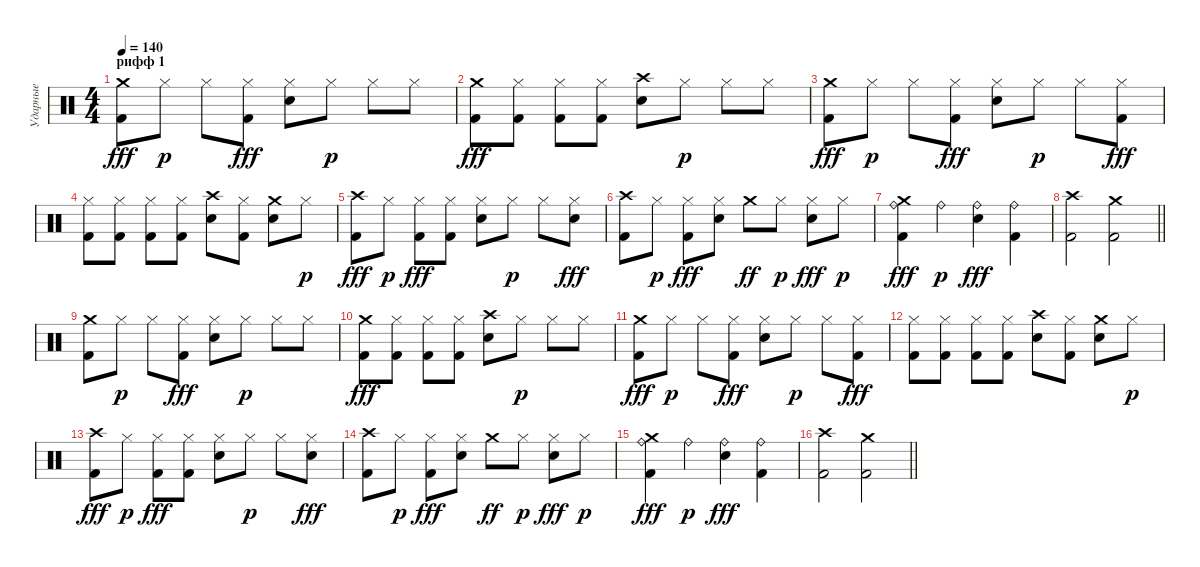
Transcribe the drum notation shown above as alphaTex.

\track ("Ударные" "Ударные") {instrument percussion}
\staff {score}
\articulation defaults
\ts (4 4)
\section ("" "рифф 1")
\tempo 140
\clef neutral
\ks c
("Crash medium (hit)" "Kick (hit) 2").8{dy fff} "Hi-Hat (closed)".8{dy p} "Hi-Hat (closed)".8 ("Hi-Hat (closed)" "Kick (hit) 2").8{dy fff} ("Hi-Hat (closed)" "Snare (hit) 2").8 "Hi-Hat (closed)".8{dy p} "Hi-Hat (closed)".8 "Hi-Hat (closed)".8 |
("Crash medium (hit)" "Kick (hit) 2").8{dy fff} ("Hi-Hat (closed)" "Kick (hit) 2").8 ("Hi-Hat (closed)" "Kick (hit) 2").8 ("Hi-Hat (closed)" "Kick (hit) 2").8 ("Crash high (hit)" "Snare (hit) 2").8 "Hi-Hat (closed)".8{dy p} "Hi-Hat (closed)".8 "Hi-Hat (closed)".8 |
("Crash medium (hit)" "Kick (hit) 2").8{dy fff} "Hi-Hat (closed)".8{dy p} "Hi-Hat (closed)".8 ("Hi-Hat (closed)" "Kick (hit) 2").8{dy fff} ("Hi-Hat (closed)" "Snare (hit) 2").8 "Hi-Hat (closed)".8{dy p} "Hi-Hat (closed)".8 ("Hi-Hat (closed)" "Kick (hit) 2").8{dy fff} |
("Hi-Hat (closed)" "Kick (hit) 2").8 ("Hi-Hat (closed)" "Kick (hit) 2").8 ("Hi-Hat (closed)" "Kick (hit) 2").8 ("Hi-Hat (closed)" "Kick (hit) 2").8 ("Crash high (hit)" "Snare (hit) 2").8 ("Hi-Hat (closed)" "Kick (hit) 2").8 ("Crash medium (hit)" "Snare (hit) 2").8 "Hi-Hat (closed)".8{dy p} |
("Crash high (hit)" "Kick (hit) 2").8{dy fff} "Hi-Hat (closed)".8{dy p} ("Hi-Hat (closed)" "Kick (hit) 2").8{dy fff} ("Hi-Hat (closed)" "Kick (hit) 2").8 ("Hi-Hat (closed)" "Snare (hit) 2").8 "Hi-Hat (closed)".8{dy p} "Hi-Hat (closed)".8 ("Hi-Hat (closed)" "Snare (hit) 2").8{dy fff} |
("Crash high (hit)" "Kick (hit) 2").8 "Hi-Hat (closed)".8{dy p} ("Hi-Hat (closed)" "Kick (hit) 2").8{dy fff} ("Hi-Hat (closed)" "Snare (hit) 2").8 "Crash medium (hit)".8{dy ff} "Hi-Hat (closed)".8{dy p} ("Hi-Hat (closed)" "Snare (hit) 2").8{dy fff} "Hi-Hat (closed)".8{dy p} |
("Crash medium (hit)" "Ride (bell)" "Kick (hit) 2").4{dy fff} "Ride (bell)".4{dy p} ("Ride (bell)" "Snare (hit) 2").4{dy fff} ("Ride (bell)" "Kick (hit) 2").4 |
\barLineRight lightlight
("Crash high (hit)" "Kick (hit) 2").2 ("Crash medium (hit)" "Kick (hit) 2").2 |
("Crash medium (hit)" "Kick (hit) 2").8 "Hi-Hat (closed)".8{dy p} "Hi-Hat (closed)".8 ("Hi-Hat (closed)" "Kick (hit) 2").8{dy fff} ("Hi-Hat (closed)" "Snare (hit) 2").8 "Hi-Hat (closed)".8{dy p} "Hi-Hat (closed)".8 "Hi-Hat (closed)".8 |
("Crash medium (hit)" "Kick (hit) 2").8{dy fff} ("Hi-Hat (closed)" "Kick (hit) 2").8 ("Hi-Hat (closed)" "Kick (hit) 2").8 ("Hi-Hat (closed)" "Kick (hit) 2").8 ("Crash high (hit)" "Snare (hit) 2").8 "Hi-Hat (closed)".8{dy p} "Hi-Hat (closed)".8 "Hi-Hat (closed)".8 |
("Crash medium (hit)" "Kick (hit) 2").8{dy fff} "Hi-Hat (closed)".8{dy p} "Hi-Hat (closed)".8 ("Hi-Hat (closed)" "Kick (hit) 2").8{dy fff} ("Hi-Hat (closed)" "Snare (hit) 2").8 "Hi-Hat (closed)".8{dy p} "Hi-Hat (closed)".8 ("Hi-Hat (closed)" "Kick (hit) 2").8{dy fff} |
("Hi-Hat (closed)" "Kick (hit) 2").8 ("Hi-Hat (closed)" "Kick (hit) 2").8 ("Hi-Hat (closed)" "Kick (hit) 2").8 ("Hi-Hat (closed)" "Kick (hit) 2").8 ("Crash high (hit)" "Snare (hit) 2").8 ("Hi-Hat (closed)" "Kick (hit) 2").8 ("Crash medium (hit)" "Snare (hit) 2").8 "Hi-Hat (closed)".8{dy p} |
("Crash high (hit)" "Kick (hit) 2").8{dy fff} "Hi-Hat (closed)".8{dy p} ("Hi-Hat (closed)" "Kick (hit) 2").8{dy fff} ("Hi-Hat (closed)" "Kick (hit) 2").8 ("Hi-Hat (closed)" "Snare (hit) 2").8 "Hi-Hat (closed)".8{dy p} "Hi-Hat (closed)".8 ("Hi-Hat (closed)" "Snare (hit) 2").8{dy fff} |
("Crash high (hit)" "Kick (hit) 2").8 "Hi-Hat (closed)".8{dy p} ("Hi-Hat (closed)" "Kick (hit) 2").8{dy fff} ("Hi-Hat (closed)" "Snare (hit) 2").8 "Crash medium (hit)".8{dy ff} "Hi-Hat (closed)".8{dy p} ("Hi-Hat (closed)" "Snare (hit) 2").8{dy fff} "Hi-Hat (closed)".8{dy p} |
("Crash medium (hit)" "Ride (bell)" "Kick (hit) 2").4{dy fff} "Ride (bell)".4{dy p} ("Ride (bell)" "Snare (hit) 2").4{dy fff} ("Ride (bell)" "Kick (hit) 2").4 |
\barLineRight lightlight
("Crash high (hit)" "Kick (hit) 2").2 ("Crash medium (hit)" "Kick (hit) 2").2
